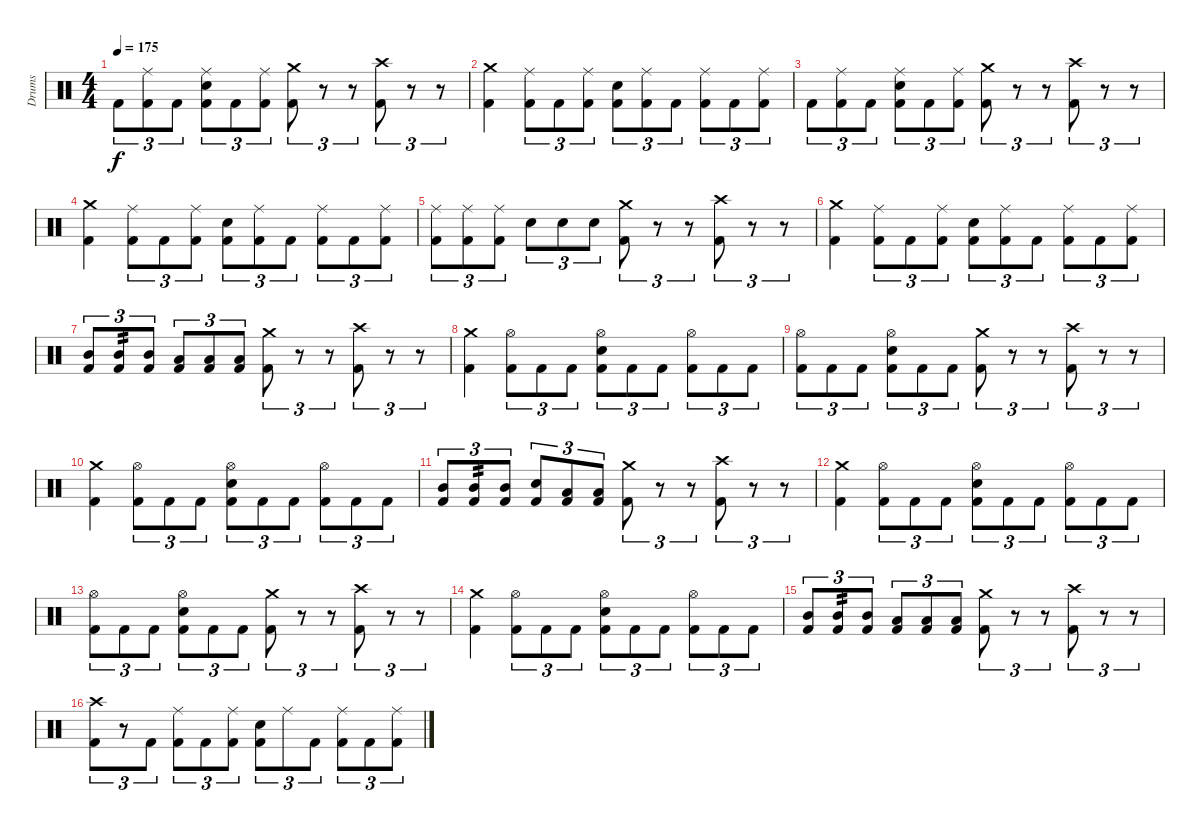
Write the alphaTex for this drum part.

\track ("Drums" "Drums") {instrument percussion}
\staff {score}
\articulation defaults
\ts (4 4)
\tempo 175
\clef neutral
\ks c "Kick (hit) 2".8{tu (3 2) dy f}
("Ride (middle)" "Kick (hit) 2").8{tu (3 2)} "Kick (hit) 2".8{tu (3 2)} ("Ride (middle)" "Electric Snare (hit)" "Kick (hit) 2").8{tu (3 2)} "Kick (hit) 2".8{tu (3 2)} ("Ride (middle)" "Kick (hit) 2").8{tu (3 2)} ("Crash medium (hit)" "Kick (hit) 2").8{tu (3 2)} r.8{tu (3 2)} r.8{tu (3 2)} ("Crash high (hit)" "Kick (hit) 2").8{tu (3 2)} r.8{tu (3 2)} r.8{tu (3 2)} |
("Crash medium (hit)" "Kick (hit) 2").4 ("Ride (middle)" "Kick (hit) 2").8{tu (3 2)} "Kick (hit) 2".8{tu (3 2)} ("Ride (middle)" "Kick (hit) 2").8{tu (3 2)} ("Electric Snare (hit)" "Kick (hit) 2").8{tu (3 2)} ("Ride (middle)" "Kick (hit) 2").8{tu (3 2)} "Kick (hit) 2".8{tu (3 2)} ("Ride (middle)" "Kick (hit) 2").8{tu (3 2)} "Kick (hit) 2".8{tu (3 2)} ("Ride (middle)" "Kick (hit) 2").8{tu (3 2)} |
"Kick (hit) 2".8{tu (3 2)} ("Ride (middle)" "Kick (hit) 2").8{tu (3 2)} "Kick (hit) 2".8{tu (3 2)} ("Ride (middle)" "Electric Snare (hit)" "Kick (hit) 2").8{tu (3 2)} "Kick (hit) 2".8{tu (3 2)} ("Ride (middle)" "Kick (hit) 2").8{tu (3 2)} ("Crash medium (hit)" "Kick (hit) 2").8{tu (3 2)} r.8{tu (3 2)} r.8{tu (3 2)} ("Crash high (hit)" "Kick (hit) 2").8{tu (3 2)} r.8{tu (3 2)} r.8{tu (3 2)} |
("Crash medium (hit)" "Kick (hit) 2").4 ("Ride (middle)" "Kick (hit) 2").8{tu (3 2)} "Kick (hit) 2".8{tu (3 2)} ("Ride (middle)" "Kick (hit) 2").8{tu (3 2)} ("Electric Snare (hit)" "Kick (hit) 2").8{tu (3 2)} ("Ride (middle)" "Kick (hit) 2").8{tu (3 2)} "Kick (hit) 2".8{tu (3 2)} ("Ride (middle)" "Kick (hit) 2").8{tu (3 2)} "Kick (hit) 2".8{tu (3 2)} ("Ride (middle)" "Kick (hit) 2").8{tu (3 2)} |
("Ride (middle)" "Kick (hit) 2").8{tu (3 2)} ("Ride (middle)" "Kick (hit) 2").8{tu (3 2)} ("Ride (middle)" "Kick (hit) 2").8{tu (3 2)} "Electric Snare (hit)".8{tu (3 2)} "Electric Snare (hit)".8{tu (3 2)} "Electric Snare (hit)".8{tu (3 2)} ("Crash medium (hit)" "Kick (hit) 2").8{tu (3 2)} r.8{tu (3 2)} r.8{tu (3 2)} ("Crash high (hit)" "Kick (hit) 2").8{tu (3 2)} r.8{tu (3 2)} r.8{tu (3 2)} |
("Crash medium (hit)" "Kick (hit) 2").4 ("Ride (middle)" "Kick (hit) 2").8{tu (3 2)} "Kick (hit) 2".8{tu (3 2)} ("Ride (middle)" "Kick (hit) 2").8{tu (3 2)} ("Electric Snare (hit)" "Kick (hit) 2").8{tu (3 2)} ("Ride (middle)" "Kick (hit) 2").8{tu (3 2)} "Kick (hit) 2".8{tu (3 2)} ("Ride (middle)" "Kick (hit) 2").8{tu (3 2)} "Kick (hit) 2".8{tu (3 2)} ("Ride (middle)" "Kick (hit) 2").8{tu (3 2)} |
("Mid Tom (hit)" "Kick (hit) 2").8{tu (3 2)} ("Mid Tom (hit)" "Kick (hit) 2").8{tu (3 2) tp 2} ("Mid Tom (hit)" "Kick (hit) 2").8{tu (3 2)} ("Low Tom (hit)" "Kick (hit) 2").8{tu (3 2)} ("Low Tom (hit)" "Kick (hit) 2").8{tu (3 2)} ("Low Tom (hit)" "Kick (hit) 2").8{tu (3 2)} ("Crash medium (hit)" "Kick (hit) 2").8{tu (3 2)} r.8{tu (3 2)} r.8{tu (3 2)} ("Crash high (hit)" "Kick (hit) 2").8{tu (3 2)} r.8{tu (3 2)} r.8{tu (3 2)} |
("Crash medium (hit)" "Kick (hit) 2").4 ("Hi-Hat (open)" "Kick (hit) 2").8{tu (3 2)} "Kick (hit) 2".8{tu (3 2)} "Kick (hit) 2".8{tu (3 2)} ("Hi-Hat (open)" "Electric Snare (hit)" "Kick (hit) 2").8{tu (3 2)} "Kick (hit) 2".8{tu (3 2)} "Kick (hit) 2".8{tu (3 2)} ("Hi-Hat (open)" "Kick (hit) 2").8{tu (3 2)} "Kick (hit) 2".8{tu (3 2)} "Kick (hit) 2".8{tu (3 2)} |
("Hi-Hat (open)" "Kick (hit) 2").8{tu (3 2)} "Kick (hit) 2".8{tu (3 2)} "Kick (hit) 2".8{tu (3 2)} ("Hi-Hat (open)" "Electric Snare (hit)" "Kick (hit) 2").8{tu (3 2)} "Kick (hit) 2".8{tu (3 2)} "Kick (hit) 2".8{tu (3 2)} ("Crash medium (hit)" "Kick (hit) 2").8{tu (3 2)} r.8{tu (3 2)} r.8{tu (3 2)} ("Crash high (hit)" "Kick (hit) 2").8{tu (3 2)} r.8{tu (3 2)} r.8{tu (3 2)} |
("Crash medium (hit)" "Kick (hit) 2").4 ("Hi-Hat (open)" "Kick (hit) 2").8{tu (3 2)} "Kick (hit) 2".8{tu (3 2)} "Kick (hit) 2".8{tu (3 2)} ("Hi-Hat (open)" "Electric Snare (hit)" "Kick (hit) 2").8{tu (3 2)} "Kick (hit) 2".8{tu (3 2)} "Kick (hit) 2".8{tu (3 2)} ("Hi-Hat (open)" "Kick (hit) 2").8{tu (3 2)} "Kick (hit) 2".8{tu (3 2)} "Kick (hit) 2".8{tu (3 2)} |
("Mid Tom (hit)" "Kick (hit) 2").8{tu (3 2)} ("Mid Tom (hit)" "Kick (hit) 2").8{tu (3 2) tp 2} ("Mid Tom (hit)" "Kick (hit) 2").8{tu (3 2)} ("Electric Snare (hit)" "Kick (hit) 2").8{tu (3 2)} ("Low Tom (hit)" "Kick (hit) 2").8{tu (3 2)} ("Low Tom (hit)" "Kick (hit) 2").8{tu (3 2)} ("Crash medium (hit)" "Kick (hit) 2").8{tu (3 2)} r.8{tu (3 2)} r.8{tu (3 2)} ("Crash high (hit)" "Kick (hit) 2").8{tu (3 2)} r.8{tu (3 2)} r.8{tu (3 2)} |
("Crash medium (hit)" "Kick (hit) 2").4 ("Hi-Hat (open)" "Kick (hit) 2").8{tu (3 2)} "Kick (hit) 2".8{tu (3 2)} "Kick (hit) 2".8{tu (3 2)} ("Hi-Hat (open)" "Electric Snare (hit)" "Kick (hit) 2").8{tu (3 2)} "Kick (hit) 2".8{tu (3 2)} "Kick (hit) 2".8{tu (3 2)} ("Hi-Hat (open)" "Kick (hit) 2").8{tu (3 2)} "Kick (hit) 2".8{tu (3 2)} "Kick (hit) 2".8{tu (3 2)} |
("Hi-Hat (open)" "Kick (hit) 2").8{tu (3 2)} "Kick (hit) 2".8{tu (3 2)} "Kick (hit) 2".8{tu (3 2)} ("Hi-Hat (open)" "Electric Snare (hit)" "Kick (hit) 2").8{tu (3 2)} "Kick (hit) 2".8{tu (3 2)} "Kick (hit) 2".8{tu (3 2)} ("Crash medium (hit)" "Kick (hit) 2").8{tu (3 2)} r.8{tu (3 2)} r.8{tu (3 2)} ("Crash high (hit)" "Kick (hit) 2").8{tu (3 2)} r.8{tu (3 2)} r.8{tu (3 2)} |
("Crash medium (hit)" "Kick (hit) 2").4 ("Hi-Hat (open)" "Kick (hit) 2").8{tu (3 2)} "Kick (hit) 2".8{tu (3 2)} "Kick (hit) 2".8{tu (3 2)} ("Hi-Hat (open)" "Electric Snare (hit)" "Kick (hit) 2").8{tu (3 2)} "Kick (hit) 2".8{tu (3 2)} "Kick (hit) 2".8{tu (3 2)} ("Hi-Hat (open)" "Kick (hit) 2").8{tu (3 2)} "Kick (hit) 2".8{tu (3 2)} "Kick (hit) 2".8{tu (3 2)} |
("Mid Tom (hit)" "Kick (hit) 2").8{tu (3 2)} ("Mid Tom (hit)" "Kick (hit) 2").8{tu (3 2) tp 2} ("Mid Tom (hit)" "Kick (hit) 2").8{tu (3 2)} ("Low Tom (hit)" "Kick (hit) 2").8{tu (3 2)} ("Low Tom (hit)" "Kick (hit) 2").8{tu (3 2)} ("Low Tom (hit)" "Kick (hit) 2").8{tu (3 2)} ("Crash medium (hit)" "Kick (hit) 2").8{tu (3 2)} r.8{tu (3 2)} r.8{tu (3 2)} ("Crash high (hit)" "Kick (hit) 2").8{tu (3 2)} r.8{tu (3 2)} r.8{tu (3 2)} |
("Crash high (hit)" "Kick (hit) 2").8{tu (3 2)} r.8{tu (3 2)} "Kick (hit) 2".8{tu (3 2)} ("Ride (middle)" "Kick (hit) 2").8{tu (3 2)} "Kick (hit) 2".8{tu (3 2)} ("Ride (middle)" "Kick (hit) 2").8{tu (3 2)} ("Electric Snare (hit)" "Kick (hit) 2").8{tu (3 2)} "Ride (middle)".8{tu (3 2)} "Kick (hit) 2".8{tu (3 2)} ("Ride (middle)" "Kick (hit) 2").8{tu (3 2)} "Kick (hit) 2".8{tu (3 2)} ("Ride (middle)" "Kick (hit) 2").8{tu (3 2)}
